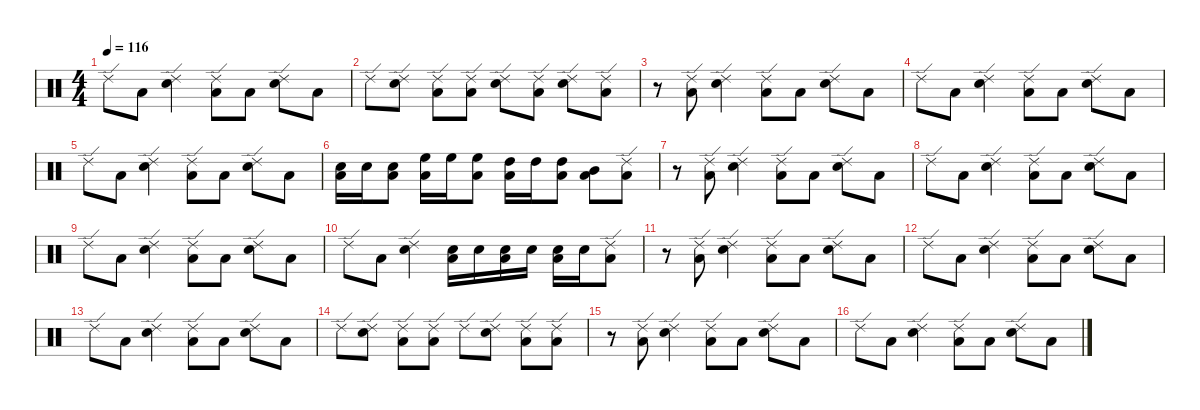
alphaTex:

\defaultSystemsLayout 4
\hideDynamics
\bracketExtendMode nobrackets
\singleTrackTrackNamePolicy hidden
\multiTrackTrackNamePolicy hidden
\otherSystemsTrackNameOrientation horizontal
\track ("Drums" "drm.") {instrument percussion}
\staff {score}
\articulation defaults
\ts (4 4)
\tempo 116
\clef neutral
\ks c "Ride (edge) 2".8{dy f beam Down} "Low Floor Tom (hit)".8{beam Down}
("Snare (hit) 2" "Ride (edge) 2").4{beam Down} ("Low Floor Tom (hit)" "Ride (edge) 2").8{beam Down} "Low Floor Tom (hit)".8{beam Down} ("Snare (hit) 2" "Ride (edge) 2").8{beam Down} "Low Floor Tom (hit)".8{beam Down} |
"Ride (edge) 2".8{beam Down} ("Snare (hit) 2" "Ride (edge) 2").8{beam Down} ("Low Floor Tom (hit)" "Ride (edge) 2").8{beam Down} ("Low Floor Tom (hit)" "Ride (edge) 2").8{beam Down} ("Snare (hit) 2" "Ride (edge) 2").8{beam Down} ("Low Floor Tom (hit)" "Ride (edge) 2").8{beam Down} ("Snare (hit) 2" "Ride (edge) 2").8{beam Down} ("Low Floor Tom (hit)" "Ride (edge) 2").8{beam Down} |
r.8{beam Down} ("Low Floor Tom (hit)" "Ride (edge) 2").8{beam Down} ("Snare (hit) 2" "Ride (edge) 2").4{beam Down} ("Low Floor Tom (hit)" "Ride (edge) 2").8{beam Down} "Low Floor Tom (hit)".8{beam Down} ("Snare (hit) 2" "Ride (edge) 2").8{beam Down} "Low Floor Tom (hit)".8{beam Down} |
"Ride (edge) 2".8{beam Down} "Low Floor Tom (hit)".8{beam Down} ("Snare (hit) 2" "Ride (edge) 2").4{beam Down} ("Low Floor Tom (hit)" "Ride (edge) 2").8{beam Down} "Low Floor Tom (hit)".8{beam Down} ("Snare (hit) 2" "Ride (edge) 2").8{beam Down} "Low Floor Tom (hit)".8{beam Down} |
"Ride (edge) 2".8{beam Down} "Low Floor Tom (hit)".8{beam Down} ("Snare (hit) 2" "Ride (edge) 2").4{beam Down} ("Low Floor Tom (hit)" "Ride (edge) 2").8{beam Down} "Low Floor Tom (hit)".8{beam Down} ("Snare (hit) 2" "Ride (edge) 2").8{beam Down} "Low Floor Tom (hit)".8{beam Down} |
("Snare (hit) 2" "Low Floor Tom (hit)").16{beam Down} "Snare (hit) 2".16{beam Down} ("Snare (hit) 2" "Low Floor Tom (hit)").8{beam Down} ("Low Floor Tom (hit)" "High Floor Tom (hit)").16{beam Down} "High Floor Tom (hit)".16{beam Down} ("Low Floor Tom (hit)" "High Floor Tom (hit)").8{beam Down} ("Low Floor Tom (hit)" "High Tom (hit)").16{beam Down} "High Tom (hit)".16{beam Down} ("Low Floor Tom (hit)" "High Tom (hit)").8{beam Down} ("Low Floor Tom (hit)" "Mid Tom (hit)").8{beam Down} ("Low Floor Tom (hit)" "Ride (edge) 2").8{beam Down} |
r.8{beam Down} ("Low Floor Tom (hit)" "Ride (edge) 2").8{beam Down} ("Snare (hit) 2" "Ride (edge) 2").4{beam Down} ("Low Floor Tom (hit)" "Ride (edge) 2").8{beam Down} "Low Floor Tom (hit)".8{beam Down} ("Snare (hit) 2" "Ride (edge) 2").8{beam Down} "Low Floor Tom (hit)".8{beam Down} |
"Ride (edge) 2".8{beam Down} "Low Floor Tom (hit)".8{beam Down} ("Snare (hit) 2" "Ride (edge) 2").4{beam Down} ("Low Floor Tom (hit)" "Ride (edge) 2").8{beam Down} "Low Floor Tom (hit)".8{beam Down} ("Snare (hit) 2" "Ride (edge) 2").8{beam Down} "Low Floor Tom (hit)".8{beam Down} |
"Ride (edge) 2".8{beam Down} "Low Floor Tom (hit)".8{beam Down} ("Snare (hit) 2" "Ride (edge) 2").4{beam Down} ("Low Floor Tom (hit)" "Ride (edge) 2").8{beam Down} "Low Floor Tom (hit)".8{beam Down} ("Snare (hit) 2" "Ride (edge) 2").8{beam Down} "Low Floor Tom (hit)".8{beam Down} |
"Ride (edge) 2".8{beam Down} "Low Floor Tom (hit)".8{beam Down} ("Snare (hit) 2" "Ride (edge) 2").4{beam Down} ("Snare (hit) 2" "Low Floor Tom (hit)").16{beam Down} "Snare (hit) 2".16{beam Down} ("Snare (hit) 2" "Low Floor Tom (hit)").16{beam Down} "Snare (hit) 2".16{beam Down} ("Snare (hit) 2" "Low Floor Tom (hit)").16{beam Down} "Snare (hit) 2".16{beam Down} ("Low Floor Tom (hit)" "Ride (edge) 2").8{beam Down} |
r.8{beam Down} ("Low Floor Tom (hit)" "Ride (edge) 2").8{beam Down} ("Snare (hit) 2" "Ride (edge) 2").4{beam Down} ("Low Floor Tom (hit)" "Ride (edge) 2").8{beam Down} "Low Floor Tom (hit)".8{beam Down} ("Snare (hit) 2" "Ride (edge) 2").8{beam Down} "Low Floor Tom (hit)".8{beam Down} |
"Ride (edge) 2".8{beam Down} "Low Floor Tom (hit)".8{beam Down} ("Snare (hit) 2" "Ride (edge) 2").4{beam Down} ("Low Floor Tom (hit)" "Ride (edge) 2").8{beam Down} "Low Floor Tom (hit)".8{beam Down} ("Snare (hit) 2" "Ride (edge) 2").8{beam Down} "Low Floor Tom (hit)".8{beam Down} |
"Ride (edge) 2".8{beam Down} "Low Floor Tom (hit)".8{beam Down} ("Snare (hit) 2" "Ride (edge) 2").4{beam Down} ("Low Floor Tom (hit)" "Ride (edge) 2").8{beam Down} "Low Floor Tom (hit)".8{beam Down} ("Snare (hit) 2" "Ride (edge) 2").8{beam Down} "Low Floor Tom (hit)".8{beam Down} |
"Ride (edge) 2".8{beam Down} ("Snare (hit) 2" "Ride (edge) 2").8{beam Down} ("Low Floor Tom (hit)" "Ride (edge) 2").8{beam Down} ("Low Floor Tom (hit)" "Ride (edge) 2").8{beam Down} "Ride (edge) 2".8{beam Down} ("Snare (hit) 2" "Ride (edge) 2").8{beam Down} ("Low Floor Tom (hit)" "Ride (edge) 2").8{beam Down} ("Low Floor Tom (hit)" "Ride (edge) 2").8{beam Down} |
r.8{beam Down} ("Low Floor Tom (hit)" "Ride (edge) 2").8{beam Down} ("Snare (hit) 2" "Ride (edge) 2").4{beam Down} ("Low Floor Tom (hit)" "Ride (edge) 2").8{beam Down} "Low Floor Tom (hit)".8{beam Down} ("Snare (hit) 2" "Ride (edge) 2").8{beam Down} "Low Floor Tom (hit)".8{beam Down} |
"Ride (edge) 2".8{beam Down} "Low Floor Tom (hit)".8{beam Down} ("Snare (hit) 2" "Ride (edge) 2").4{beam Down} ("Low Floor Tom (hit)" "Ride (edge) 2").8{beam Down} "Low Floor Tom (hit)".8{beam Down} ("Snare (hit) 2" "Ride (edge) 2").8{beam Down} "Low Floor Tom (hit)".8{beam Down}
